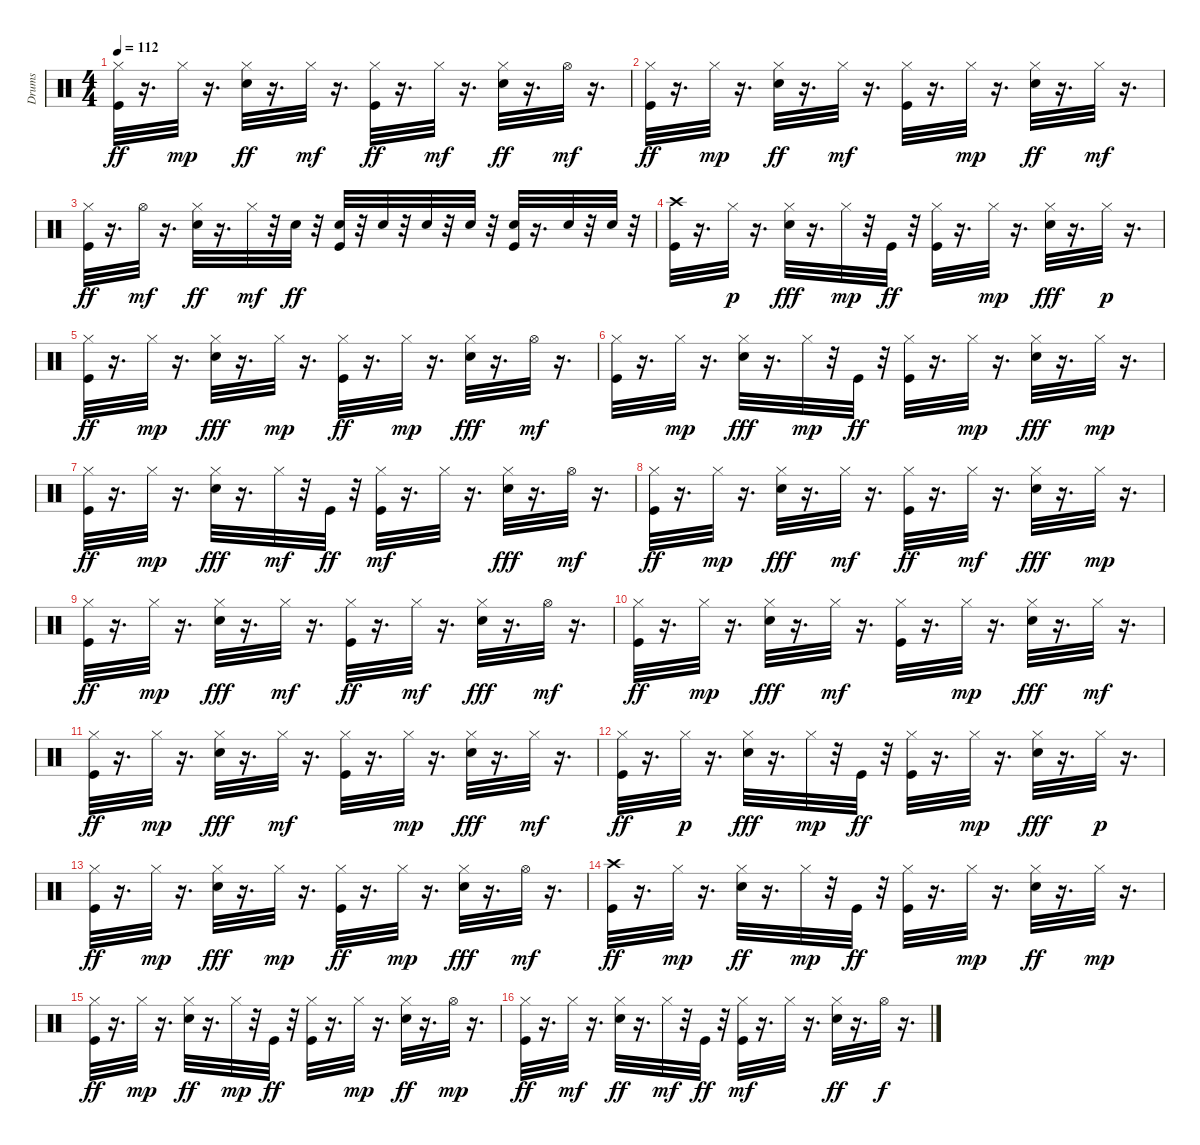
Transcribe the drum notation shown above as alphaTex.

\track ("Drums" "Drums") {instrument percussion}
\staff {score}
\articulation defaults
\ts (4 4)
\tempo 112
\clef neutral
\ks c
("Hi-Hat (closed)" "Kick (hit)").32{dy ff} r.16{d} "Hi-Hat (closed)".32{dy mp} r.16{d} ("Hi-Hat (closed)" "Electric Snare (hit)").32{dy ff} r.16{d} "Hi-Hat (closed)".32{dy mf} r.16{d} ("Hi-Hat (closed)" "Kick (hit)").32{dy ff} r.16{d} "Hi-Hat (closed)".32{dy mf} r.16{d} ("Hi-Hat (closed)" "Electric Snare (hit)").32{dy ff} r.16{d} "Hi-Hat (open)".32{dy mf} r.16{d} |
("Hi-Hat (closed)" "Kick (hit)").32{dy ff} r.16{d} "Hi-Hat (closed)".32{dy mp} r.16{d} ("Electric Snare (hit)" "Hi-Hat (closed)").32{dy ff} r.16{d} "Hi-Hat (closed)".32{dy mf} r.16{d} ("Kick (hit)" "Hi-Hat (closed)").32 r.16{d} "Hi-Hat (closed)".32{dy mp} r.16{d} ("Hi-Hat (closed)" "Electric Snare (hit)").32{dy ff} r.16{d} "Hi-Hat (closed)".32{dy mf} r.16{d} |
("Hi-Hat (closed)" "Kick (hit)").32{dy ff} r.16{d} "Hi-Hat (open)".32{dy mf} r.16{d} ("Hi-Hat (closed)" "Electric Snare (hit)").32{dy ff} r.16{d} "Hi-Hat (closed)".32{dy mf} r.32 "Electric Snare (hit)".32{dy ff} r.32 ("Kick (hit)" "Electric Snare (hit)").32 r.32 "Electric Snare (hit)".32 r.32 "Electric Snare (hit)".32 r.32 "Electric Snare (hit)".32 r.32 ("Kick (hit)" "Electric Snare (hit)").32 r.16{d} "Electric Snare (hit)".32 r.32 "Electric Snare (hit)".32 r.32 |
("Kick (hit)" "Crash high (hit)").32 r.16{d} "Hi-Hat (closed)".32{dy p} r.16{d} ("Hi-Hat (closed)" "Electric Snare (hit)").32{dy fff} r.16{d} "Hi-Hat (closed)".32{dy mp} r.32 "Kick (hit)".32{dy ff} r.32 ("Kick (hit)" "Hi-Hat (closed)").32 r.16{d} "Hi-Hat (closed)".32{dy mp} r.16{d} ("Hi-Hat (closed)" "Electric Snare (hit)").32{dy fff} r.16{d} "Hi-Hat (closed)".32{dy p} r.16{d} |
("Hi-Hat (closed)" "Kick (hit)").32{dy ff} r.16{d} "Hi-Hat (closed)".32{dy mp} r.16{d} ("Hi-Hat (closed)" "Electric Snare (hit)").32{dy fff} r.16{d} "Hi-Hat (closed)".32{dy mp} r.16{d} ("Hi-Hat (closed)" "Kick (hit)").32{dy ff} r.16{d} "Hi-Hat (closed)".32{dy mp} r.16{d} ("Hi-Hat (closed)" "Electric Snare (hit)").32{dy fff} r.16{d} "Hi-Hat (open)".32{dy mf} r.16{d} |
("Kick (hit)" "Hi-Hat (closed)").32 r.16{d} "Hi-Hat (closed)".32{dy mp} r.16{d} ("Electric Snare (hit)" "Hi-Hat (closed)").32{dy fff} r.16{d} "Hi-Hat (closed)".32{dy mp} r.32 "Kick (hit)".32{dy ff} r.32 ("Hi-Hat (closed)" "Kick (hit)").32 r.16{d} "Hi-Hat (closed)".32{dy mp} r.16{d} ("Electric Snare (hit)" "Hi-Hat (closed)").32{dy fff} r.16{d} "Hi-Hat (closed)".32{dy mp} r.16{d} |
("Hi-Hat (closed)" "Kick (hit)").32{dy ff} r.16{d} "Hi-Hat (closed)".32{dy mp} r.16{d} ("Hi-Hat (closed)" "Electric Snare (hit)").32{dy fff} r.16{d} "Hi-Hat (closed)".32{dy mf} r.32 "Kick (hit)".32{dy ff} r.32 ("Kick (hit)" "Hi-Hat (closed)").32{dy mf} r.16{d} "Hi-Hat (closed)".32 r.16{d} ("Electric Snare (hit)" "Hi-Hat (closed)").32{dy fff} r.16{d} "Hi-Hat (open)".32{dy mf} r.16{d} |
("Hi-Hat (closed)" "Kick (hit)").32{dy ff} r.16{d} "Hi-Hat (closed)".32{dy mp} r.16{d} ("Hi-Hat (closed)" "Electric Snare (hit)").32{dy fff} r.16{d} "Hi-Hat (closed)".32{dy mf} r.16{d} ("Hi-Hat (closed)" "Kick (hit)").32{dy ff} r.16{d} "Hi-Hat (closed)".32{dy mf} r.16{d} ("Hi-Hat (closed)" "Electric Snare (hit)").32{dy fff} r.16{d} "Hi-Hat (closed)".32{dy mp} r.16{d} |
("Hi-Hat (closed)" "Kick (hit)").32{dy ff} r.16{d} "Hi-Hat (closed)".32{dy mp} r.16{d} ("Hi-Hat (closed)" "Electric Snare (hit)").32{dy fff} r.16{d} "Hi-Hat (closed)".32{dy mf} r.16{d} ("Hi-Hat (closed)" "Kick (hit)").32{dy ff} r.16{d} "Hi-Hat (closed)".32{dy mf} r.16{d} ("Hi-Hat (closed)" "Electric Snare (hit)").32{dy fff} r.16{d} "Hi-Hat (open)".32{dy mf} r.16{d} |
("Hi-Hat (closed)" "Kick (hit)").32{dy ff} r.16{d} "Hi-Hat (closed)".32{dy mp} r.16{d} ("Electric Snare (hit)" "Hi-Hat (closed)").32{dy fff} r.16{d} "Hi-Hat (closed)".32{dy mf} r.16{d} ("Kick (hit)" "Hi-Hat (closed)").32 r.16{d} "Hi-Hat (closed)".32{dy mp} r.16{d} ("Hi-Hat (closed)" "Electric Snare (hit)").32{dy fff} r.16{d} "Hi-Hat (closed)".32{dy mf} r.16{d} |
("Hi-Hat (closed)" "Kick (hit)").32{dy ff} r.16{d} "Hi-Hat (closed)".32{dy mp} r.16{d} ("Electric Snare (hit)" "Hi-Hat (closed)").32{dy fff} r.16{d} "Hi-Hat (closed)".32{dy mf} r.16{d} ("Kick (hit)" "Hi-Hat (closed)").32 r.16{d} "Hi-Hat (closed)".32{dy mp} r.16{d} ("Hi-Hat (closed)" "Electric Snare (hit)").32{dy fff} r.16{d} "Hi-Hat (closed)".32{dy mf} r.16{d} |
("Kick (hit)" "Hi-Hat (closed)").32{dy ff} r.16{d} "Hi-Hat (closed)".32{dy p} r.16{d} ("Hi-Hat (closed)" "Electric Snare (hit)").32{dy fff} r.16{d} "Hi-Hat (closed)".32{dy mp} r.32 "Kick (hit)".32{dy ff} r.32 ("Kick (hit)" "Hi-Hat (closed)").32 r.16{d} "Hi-Hat (closed)".32{dy mp} r.16{d} ("Hi-Hat (closed)" "Electric Snare (hit)").32{dy fff} r.16{d} "Hi-Hat (closed)".32{dy p} r.16{d} |
("Hi-Hat (closed)" "Kick (hit)").32{dy ff} r.16{d} "Hi-Hat (closed)".32{dy mp} r.16{d} ("Hi-Hat (closed)" "Electric Snare (hit)").32{dy fff} r.16{d} "Hi-Hat (closed)".32{dy mp} r.16{d} ("Hi-Hat (closed)" "Kick (hit)").32{dy ff} r.16{d} "Hi-Hat (closed)".32{dy mp} r.16{d} ("Hi-Hat (closed)" "Electric Snare (hit)").32{dy fff} r.16{d} "Hi-Hat (open)".32{dy mf} r.16{d} |
("Kick (hit)" "Crash high (hit)").32{dy ff} r.16{d} "Hi-Hat (closed)".32{dy mp} r.16{d} ("Hi-Hat (closed)" "Electric Snare (hit)").32{dy ff} r.16{d} "Hi-Hat (closed)".32{dy mp} r.32 "Kick (hit)".32{dy ff} r.32 ("Hi-Hat (closed)" "Kick (hit)").32 r.16{d} "Hi-Hat (closed)".32{dy mp} r.16{d} ("Electric Snare (hit)" "Hi-Hat (closed)").32{dy ff} r.16{d} "Hi-Hat (closed)".32{dy mp} r.16{d} |
("Hi-Hat (closed)" "Kick (hit)").32{dy ff} r.16{d} "Hi-Hat (closed)".32{dy mp} r.16{d} ("Electric Snare (hit)" "Hi-Hat (closed)").32{dy ff} r.16{d} "Hi-Hat (closed)".32{dy mp} r.32 "Kick (hit)".32{dy ff} r.32 ("Hi-Hat (closed)" "Kick (hit)").32 r.16{d} "Hi-Hat (closed)".32{dy mp} r.16{d} ("Electric Snare (hit)" "Hi-Hat (closed)").32{dy ff} r.16{d} "Hi-Hat (open)".32{dy mp} r.16{d} |
("Kick (hit)" "Hi-Hat (closed)").32{dy ff} r.16{d} "Hi-Hat (closed)".32{dy mf} r.16{d} ("Hi-Hat (closed)" "Electric Snare (hit)").32{dy ff} r.16{d} "Hi-Hat (closed)".32{dy mf} r.32 "Kick (hit)".32{dy ff} r.32 ("Kick (hit)" "Hi-Hat (closed)").32{dy mf} r.16{d} "Hi-Hat (closed)".32 r.16{d} ("Hi-Hat (closed)" "Electric Snare (hit)").32{dy ff} r.16{d} "Hi-Hat (open)".32{dy f} r.16{d}
